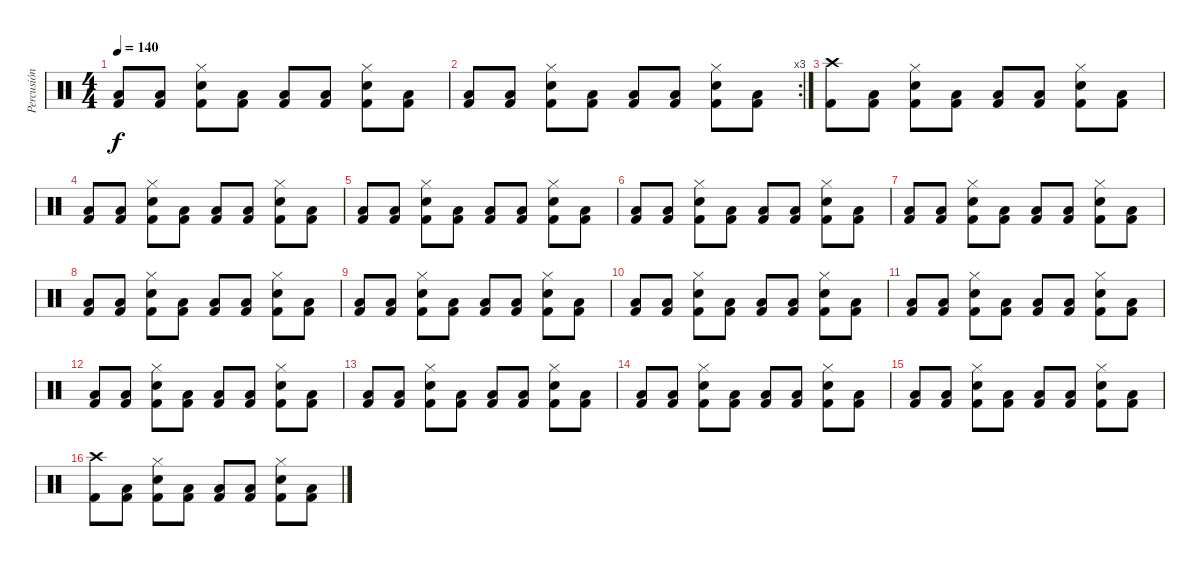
\track ("Percusión" "Percusión") {instrument percussion}
\staff {score}
\articulation defaults
\ts (4 4)
\tempo 140
\clef neutral
\ks c
("Kick (hit) 2" "Low Tom (hit)").8{dy f} ("Kick (hit) 2" "Low Tom (hit)").8 ("Kick (hit) 2" "Snare (hit) 2" "Hi-Hat (closed)").8 ("Kick (hit) 2" "Low Tom (hit)").8 ("Kick (hit) 2" "Low Tom (hit)").8 ("Kick (hit) 2" "Low Tom (hit)").8 ("Kick (hit) 2" "Snare (hit) 2" "Hi-Hat (closed)").8 ("Kick (hit) 2" "Low Tom (hit)").8 |
\rc 3
("Kick (hit) 2" "Low Tom (hit)").8 ("Kick (hit) 2" "Low Tom (hit)").8 ("Kick (hit) 2" "Snare (hit) 2" "Hi-Hat (closed)").8 ("Kick (hit) 2" "Low Tom (hit)").8 ("Kick (hit) 2" "Low Tom (hit)").8 ("Kick (hit) 2" "Low Tom (hit)").8 ("Kick (hit) 2" "Snare (hit) 2" "Hi-Hat (closed)").8 ("Kick (hit) 2" "Low Tom (hit)").8 |
("Kick (hit) 2" "Crash high (hit)").8 ("Kick (hit) 2" "Low Tom (hit)").8 ("Kick (hit) 2" "Snare (hit) 2" "Hi-Hat (closed)").8 ("Kick (hit) 2" "Low Tom (hit)").8 ("Kick (hit) 2" "Low Tom (hit)").8 ("Kick (hit) 2" "Low Tom (hit)").8 ("Kick (hit) 2" "Snare (hit) 2" "Hi-Hat (closed)").8 ("Kick (hit) 2" "Low Tom (hit)").8 |
("Kick (hit) 2" "Low Tom (hit)").8 ("Kick (hit) 2" "Low Tom (hit)").8 ("Kick (hit) 2" "Snare (hit) 2" "Hi-Hat (closed)").8 ("Kick (hit) 2" "Low Tom (hit)").8 ("Kick (hit) 2" "Low Tom (hit)").8 ("Kick (hit) 2" "Low Tom (hit)").8 ("Kick (hit) 2" "Snare (hit) 2" "Hi-Hat (closed)").8 ("Kick (hit) 2" "Low Tom (hit)").8 |
("Kick (hit) 2" "Low Tom (hit)").8 ("Kick (hit) 2" "Low Tom (hit)").8 ("Kick (hit) 2" "Snare (hit) 2" "Hi-Hat (closed)").8 ("Kick (hit) 2" "Low Tom (hit)").8 ("Kick (hit) 2" "Low Tom (hit)").8 ("Kick (hit) 2" "Low Tom (hit)").8 ("Kick (hit) 2" "Snare (hit) 2" "Hi-Hat (closed)").8 ("Kick (hit) 2" "Low Tom (hit)").8 |
("Kick (hit) 2" "Low Tom (hit)").8 ("Kick (hit) 2" "Low Tom (hit)").8 ("Kick (hit) 2" "Snare (hit) 2" "Hi-Hat (closed)").8 ("Kick (hit) 2" "Low Tom (hit)").8 ("Kick (hit) 2" "Low Tom (hit)").8 ("Kick (hit) 2" "Low Tom (hit)").8 ("Kick (hit) 2" "Snare (hit) 2" "Hi-Hat (closed)").8 ("Kick (hit) 2" "Low Tom (hit)").8 |
("Kick (hit) 2" "Low Tom (hit)").8 ("Kick (hit) 2" "Low Tom (hit)").8 ("Kick (hit) 2" "Snare (hit) 2" "Hi-Hat (closed)").8 ("Kick (hit) 2" "Low Tom (hit)").8 ("Kick (hit) 2" "Low Tom (hit)").8 ("Kick (hit) 2" "Low Tom (hit)").8 ("Kick (hit) 2" "Snare (hit) 2" "Hi-Hat (closed)").8 ("Kick (hit) 2" "Low Tom (hit)").8 |
("Kick (hit) 2" "Low Tom (hit)").8 ("Kick (hit) 2" "Low Tom (hit)").8 ("Kick (hit) 2" "Snare (hit) 2" "Hi-Hat (closed)").8 ("Kick (hit) 2" "Low Tom (hit)").8 ("Kick (hit) 2" "Low Tom (hit)").8 ("Kick (hit) 2" "Low Tom (hit)").8 ("Kick (hit) 2" "Snare (hit) 2" "Hi-Hat (closed)").8 ("Kick (hit) 2" "Low Tom (hit)").8 |
("Kick (hit) 2" "Low Tom (hit)").8 ("Kick (hit) 2" "Low Tom (hit)").8 ("Kick (hit) 2" "Snare (hit) 2" "Hi-Hat (closed)").8 ("Kick (hit) 2" "Low Tom (hit)").8 ("Kick (hit) 2" "Low Tom (hit)").8 ("Kick (hit) 2" "Low Tom (hit)").8 ("Kick (hit) 2" "Snare (hit) 2" "Hi-Hat (closed)").8 ("Kick (hit) 2" "Low Tom (hit)").8 |
("Kick (hit) 2" "Low Tom (hit)").8 ("Kick (hit) 2" "Low Tom (hit)").8 ("Kick (hit) 2" "Snare (hit) 2" "Hi-Hat (closed)").8 ("Kick (hit) 2" "Low Tom (hit)").8 ("Kick (hit) 2" "Low Tom (hit)").8 ("Kick (hit) 2" "Low Tom (hit)").8 ("Kick (hit) 2" "Snare (hit) 2" "Hi-Hat (closed)").8 ("Kick (hit) 2" "Low Tom (hit)").8 |
("Kick (hit) 2" "Low Tom (hit)").8 ("Kick (hit) 2" "Low Tom (hit)").8 ("Kick (hit) 2" "Snare (hit) 2" "Hi-Hat (closed)").8 ("Kick (hit) 2" "Low Tom (hit)").8 ("Kick (hit) 2" "Low Tom (hit)").8 ("Kick (hit) 2" "Low Tom (hit)").8 ("Kick (hit) 2" "Snare (hit) 2" "Hi-Hat (closed)").8 ("Kick (hit) 2" "Low Tom (hit)").8 |
("Kick (hit) 2" "Low Tom (hit)").8 ("Kick (hit) 2" "Low Tom (hit)").8 ("Kick (hit) 2" "Snare (hit) 2" "Hi-Hat (closed)").8 ("Kick (hit) 2" "Low Tom (hit)").8 ("Kick (hit) 2" "Low Tom (hit)").8 ("Kick (hit) 2" "Low Tom (hit)").8 ("Kick (hit) 2" "Snare (hit) 2" "Hi-Hat (closed)").8 ("Kick (hit) 2" "Low Tom (hit)").8 |
("Kick (hit) 2" "Low Tom (hit)").8 ("Kick (hit) 2" "Low Tom (hit)").8 ("Kick (hit) 2" "Snare (hit) 2" "Hi-Hat (closed)").8 ("Kick (hit) 2" "Low Tom (hit)").8 ("Kick (hit) 2" "Low Tom (hit)").8 ("Kick (hit) 2" "Low Tom (hit)").8 ("Kick (hit) 2" "Snare (hit) 2" "Hi-Hat (closed)").8 ("Kick (hit) 2" "Low Tom (hit)").8 |
("Kick (hit) 2" "Low Tom (hit)").8 ("Kick (hit) 2" "Low Tom (hit)").8 ("Kick (hit) 2" "Snare (hit) 2" "Hi-Hat (closed)").8 ("Kick (hit) 2" "Low Tom (hit)").8 ("Kick (hit) 2" "Low Tom (hit)").8 ("Kick (hit) 2" "Low Tom (hit)").8 ("Kick (hit) 2" "Snare (hit) 2" "Hi-Hat (closed)").8 ("Kick (hit) 2" "Low Tom (hit)").8 |
("Kick (hit) 2" "Low Tom (hit)").8 ("Kick (hit) 2" "Low Tom (hit)").8 ("Kick (hit) 2" "Snare (hit) 2" "Hi-Hat (closed)").8 ("Kick (hit) 2" "Low Tom (hit)").8 ("Kick (hit) 2" "Low Tom (hit)").8 ("Kick (hit) 2" "Low Tom (hit)").8 ("Kick (hit) 2" "Snare (hit) 2" "Hi-Hat (closed)").8 ("Kick (hit) 2" "Low Tom (hit)").8 |
("Kick (hit) 2" "Crash high (hit)").8 ("Kick (hit) 2" "Low Tom (hit)").8 ("Kick (hit) 2" "Snare (hit) 2" "Hi-Hat (closed)").8 ("Kick (hit) 2" "Low Tom (hit)").8 ("Kick (hit) 2" "Low Tom (hit)").8 ("Kick (hit) 2" "Low Tom (hit)").8 ("Kick (hit) 2" "Snare (hit) 2" "Hi-Hat (closed)").8 ("Kick (hit) 2" "Low Tom (hit)").8
